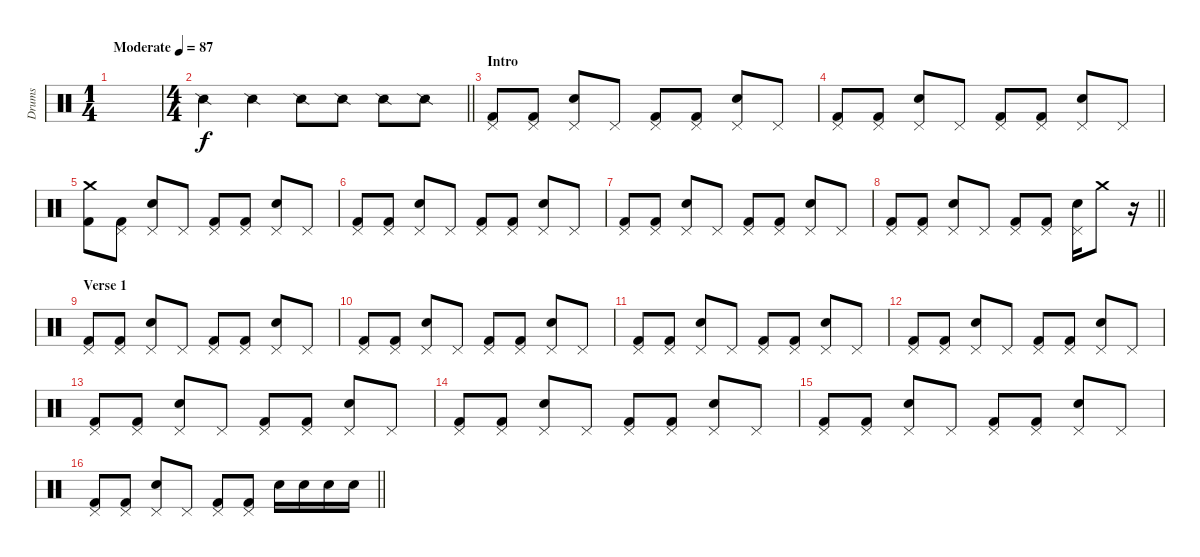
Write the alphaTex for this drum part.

\track ("Drums" "Drums") {instrument percussion}
\staff {score}
\articulation defaults
\ts (1 4)
\tempo (87 "Moderate")
\clef neutral
\ks c
|
\ts (4 4)
\barLineRight lightlight "Snare (side stick) 2".4 "Snare (side stick) 2".4 "Snare (side stick) 2".8 "Snare (side stick) 2".8 "Snare (side stick) 2".8 "Snare (side stick) 2".8
|
\section ("" "Intro")
("Pedal Hi-Hat (hit)" "Kick (hit) 2").8 ("Pedal Hi-Hat (hit)" "Kick (hit) 2").8 ("Pedal Hi-Hat (hit)" "Snare (hit) 2").8 "Pedal Hi-Hat (hit)".8 ("Pedal Hi-Hat (hit)" "Kick (hit) 2").8 ("Pedal Hi-Hat (hit)" "Kick (hit) 2").8 ("Pedal Hi-Hat (hit)" "Snare (hit) 2").8 "Pedal Hi-Hat (hit)".8 |
("Pedal Hi-Hat (hit)" "Kick (hit) 2").8 ("Pedal Hi-Hat (hit)" "Kick (hit) 2").8 ("Pedal Hi-Hat (hit)" "Snare (hit) 2").8 "Pedal Hi-Hat (hit)".8 ("Pedal Hi-Hat (hit)" "Kick (hit) 2").8 ("Pedal Hi-Hat (hit)" "Kick (hit) 2").8 ("Pedal Hi-Hat (hit)" "Snare (hit) 2").8 "Pedal Hi-Hat (hit)".8 |
("Crash medium (hit)" "Kick (hit) 2").8 ("Pedal Hi-Hat (hit)" "Kick (hit) 2").8 ("Pedal Hi-Hat (hit)" "Snare (hit) 2").8 "Pedal Hi-Hat (hit)".8 ("Pedal Hi-Hat (hit)" "Kick (hit) 2").8 ("Pedal Hi-Hat (hit)" "Kick (hit) 2").8 ("Pedal Hi-Hat (hit)" "Snare (hit) 2").8 "Pedal Hi-Hat (hit)".8 |
("Pedal Hi-Hat (hit)" "Kick (hit) 2").8 ("Pedal Hi-Hat (hit)" "Kick (hit) 2").8 ("Pedal Hi-Hat (hit)" "Snare (hit) 2").8 "Pedal Hi-Hat (hit)".8 ("Pedal Hi-Hat (hit)" "Kick (hit) 2").8 ("Pedal Hi-Hat (hit)" "Kick (hit) 2").8 ("Pedal Hi-Hat (hit)" "Snare (hit) 2").8 "Pedal Hi-Hat (hit)".8 |
("Pedal Hi-Hat (hit)" "Kick (hit) 2").8 ("Pedal Hi-Hat (hit)" "Kick (hit) 2").8 ("Pedal Hi-Hat (hit)" "Snare (hit) 2").8 "Pedal Hi-Hat (hit)".8 ("Pedal Hi-Hat (hit)" "Kick (hit) 2").8 ("Pedal Hi-Hat (hit)" "Kick (hit) 2").8 ("Pedal Hi-Hat (hit)" "Snare (hit) 2").8 "Pedal Hi-Hat (hit)".8 |
\barLineRight lightlight
("Pedal Hi-Hat (hit)" "Kick (hit) 2").8 ("Pedal Hi-Hat (hit)" "Kick (hit) 2").8 ("Pedal Hi-Hat (hit)" "Snare (hit) 2").8 "Pedal Hi-Hat (hit)".8 ("Pedal Hi-Hat (hit)" "Kick (hit) 2").8 ("Pedal Hi-Hat (hit)" "Kick (hit) 2").8 ("Pedal Hi-Hat (hit)" "Snare (hit) 2").16 "Crash medium (hit)".8 r.16 |
\section ("" "Verse 1")
("Pedal Hi-Hat (hit)" "Kick (hit) 2").8 ("Pedal Hi-Hat (hit)" "Kick (hit) 2").8 ("Pedal Hi-Hat (hit)" "Snare (hit) 2").8 "Pedal Hi-Hat (hit)".8 ("Pedal Hi-Hat (hit)" "Kick (hit) 2").8 ("Pedal Hi-Hat (hit)" "Kick (hit) 2").8 ("Pedal Hi-Hat (hit)" "Snare (hit) 2").8 "Pedal Hi-Hat (hit)".8 |
("Pedal Hi-Hat (hit)" "Kick (hit) 2").8 ("Pedal Hi-Hat (hit)" "Kick (hit) 2").8 ("Pedal Hi-Hat (hit)" "Snare (hit) 2").8 "Pedal Hi-Hat (hit)".8 ("Pedal Hi-Hat (hit)" "Kick (hit) 2").8 ("Pedal Hi-Hat (hit)" "Kick (hit) 2").8 ("Pedal Hi-Hat (hit)" "Snare (hit) 2").8 "Pedal Hi-Hat (hit)".8 |
("Pedal Hi-Hat (hit)" "Kick (hit) 2").8 ("Pedal Hi-Hat (hit)" "Kick (hit) 2").8 ("Pedal Hi-Hat (hit)" "Snare (hit) 2").8 "Pedal Hi-Hat (hit)".8 ("Pedal Hi-Hat (hit)" "Kick (hit) 2").8 ("Pedal Hi-Hat (hit)" "Kick (hit) 2").8 ("Pedal Hi-Hat (hit)" "Snare (hit) 2").8 "Pedal Hi-Hat (hit)".8 |
("Pedal Hi-Hat (hit)" "Kick (hit) 2").8 ("Pedal Hi-Hat (hit)" "Kick (hit) 2").8 ("Pedal Hi-Hat (hit)" "Snare (hit) 2").8 "Pedal Hi-Hat (hit)".8 ("Pedal Hi-Hat (hit)" "Kick (hit) 2").8 ("Pedal Hi-Hat (hit)" "Kick (hit) 2").8 ("Pedal Hi-Hat (hit)" "Snare (hit) 2").8 "Pedal Hi-Hat (hit)".8 |
("Pedal Hi-Hat (hit)" "Kick (hit) 2").8 ("Pedal Hi-Hat (hit)" "Kick (hit) 2").8 ("Pedal Hi-Hat (hit)" "Snare (hit) 2").8 "Pedal Hi-Hat (hit)".8 ("Pedal Hi-Hat (hit)" "Kick (hit) 2").8 ("Pedal Hi-Hat (hit)" "Kick (hit) 2").8 ("Pedal Hi-Hat (hit)" "Snare (hit) 2").8 "Pedal Hi-Hat (hit)".8 |
("Pedal Hi-Hat (hit)" "Kick (hit) 2").8 ("Pedal Hi-Hat (hit)" "Kick (hit) 2").8 ("Pedal Hi-Hat (hit)" "Snare (hit) 2").8 "Pedal Hi-Hat (hit)".8 ("Pedal Hi-Hat (hit)" "Kick (hit) 2").8 ("Pedal Hi-Hat (hit)" "Kick (hit) 2").8 ("Pedal Hi-Hat (hit)" "Snare (hit) 2").8 "Pedal Hi-Hat (hit)".8 |
("Pedal Hi-Hat (hit)" "Kick (hit) 2").8 ("Pedal Hi-Hat (hit)" "Kick (hit) 2").8 ("Pedal Hi-Hat (hit)" "Snare (hit) 2").8 "Pedal Hi-Hat (hit)".8 ("Pedal Hi-Hat (hit)" "Kick (hit) 2").8 ("Pedal Hi-Hat (hit)" "Kick (hit) 2").8 ("Pedal Hi-Hat (hit)" "Snare (hit) 2").8 "Pedal Hi-Hat (hit)".8 |
\barLineRight lightlight
("Pedal Hi-Hat (hit)" "Kick (hit) 2").8 ("Pedal Hi-Hat (hit)" "Kick (hit) 2").8 ("Pedal Hi-Hat (hit)" "Snare (hit) 2").8 "Pedal Hi-Hat (hit)".8 ("Pedal Hi-Hat (hit)" "Kick (hit) 2").8 ("Pedal Hi-Hat (hit)" "Kick (hit) 2").8 "Snare (hit) 2".16 "Snare (hit) 2".16 "Snare (hit) 2".16 "Snare (hit) 2".16
